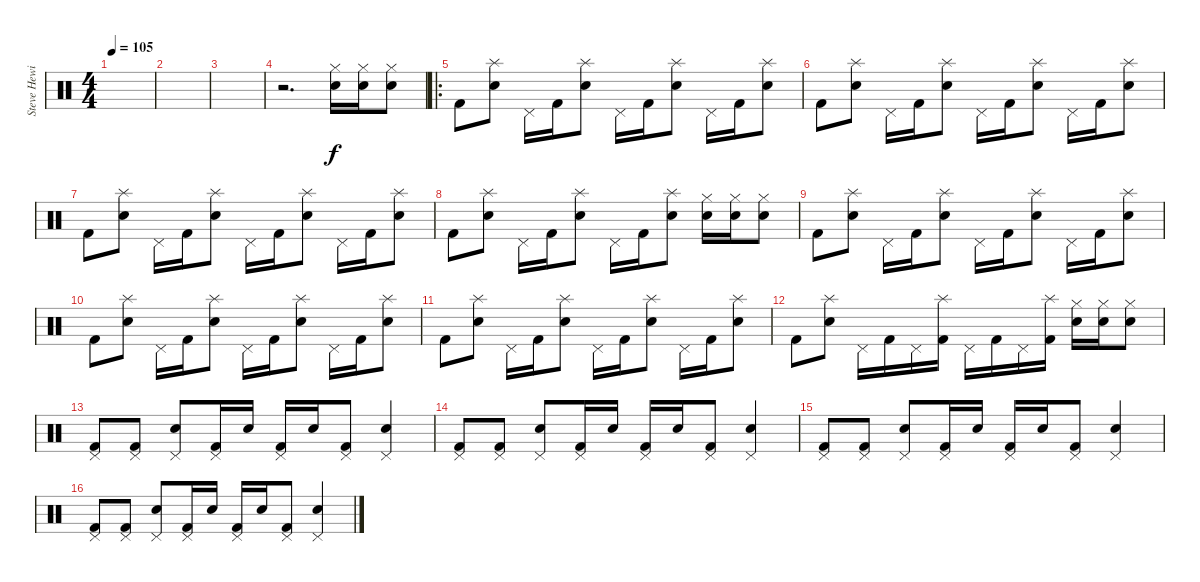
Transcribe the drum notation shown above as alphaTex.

\track ("Steve Hewitt" "Steve Hewi") {instrument percussion}
\staff {score}
\articulation defaults
\ts (4 4)
\tempo 105
\clef neutral
\ks c
|
|
|
r.2{d} ("Hi-Hat (closed)" "Electric Snare (hit)").16 ("Hi-Hat (closed)" "Electric Snare (hit)").16 ("Hi-Hat (closed)" "Electric Snare (hit)").8 |
\ro "Kick (hit) 2".8
("Splash (hit)" "Electric Snare (hit)").8 "Pedal Hi-Hat (hit)".16 "Kick (hit) 2".16 ("Splash (hit)" "Electric Snare (hit)").8 "Pedal Hi-Hat (hit)".16 "Kick (hit) 2".16 ("Splash (hit)" "Electric Snare (hit)").8 "Pedal Hi-Hat (hit)".16 "Kick (hit) 2".16 ("Splash (hit)" "Electric Snare (hit)").8 |
"Kick (hit) 2".8 ("Splash (hit)" "Electric Snare (hit)").8 "Pedal Hi-Hat (hit)".16 "Kick (hit) 2".16 ("Splash (hit)" "Electric Snare (hit)").8 "Pedal Hi-Hat (hit)".16 "Kick (hit) 2".16 ("Splash (hit)" "Electric Snare (hit)").8 "Pedal Hi-Hat (hit)".16 "Kick (hit) 2".16 ("Splash (hit)" "Electric Snare (hit)").8 |
"Kick (hit) 2".8 ("Splash (hit)" "Electric Snare (hit)").8 "Pedal Hi-Hat (hit)".16 "Kick (hit) 2".16 ("Splash (hit)" "Electric Snare (hit)").8 "Pedal Hi-Hat (hit)".16 "Kick (hit) 2".16 ("Splash (hit)" "Electric Snare (hit)").8 "Pedal Hi-Hat (hit)".16 "Kick (hit) 2".16 ("Splash (hit)" "Electric Snare (hit)").8 |
"Kick (hit) 2".8 ("Splash (hit)" "Electric Snare (hit)").8 "Pedal Hi-Hat (hit)".16 "Kick (hit) 2".16 ("Splash (hit)" "Electric Snare (hit)").8 "Pedal Hi-Hat (hit)".16 "Kick (hit) 2".16 ("Splash (hit)" "Electric Snare (hit)").8 ("Hi-Hat (closed)" "Electric Snare (hit)").16 ("Hi-Hat (closed)" "Electric Snare (hit)").16 ("Hi-Hat (closed)" "Electric Snare (hit)").8 |
"Kick (hit) 2".8 ("Splash (hit)" "Electric Snare (hit)").8 "Pedal Hi-Hat (hit)".16 "Kick (hit) 2".16 ("Splash (hit)" "Electric Snare (hit)").8 "Pedal Hi-Hat (hit)".16 "Kick (hit) 2".16 ("Splash (hit)" "Electric Snare (hit)").8 "Pedal Hi-Hat (hit)".16 "Kick (hit) 2".16 ("Splash (hit)" "Electric Snare (hit)").8 |
"Kick (hit) 2".8 ("Splash (hit)" "Electric Snare (hit)").8 "Pedal Hi-Hat (hit)".16 "Kick (hit) 2".16 ("Splash (hit)" "Electric Snare (hit)").8 "Pedal Hi-Hat (hit)".16 "Kick (hit) 2".16 ("Splash (hit)" "Electric Snare (hit)").8 "Pedal Hi-Hat (hit)".16 "Kick (hit) 2".16 ("Splash (hit)" "Electric Snare (hit)").8 |
"Kick (hit) 2".8 ("Splash (hit)" "Electric Snare (hit)").8 "Pedal Hi-Hat (hit)".16 "Kick (hit) 2".16 ("Splash (hit)" "Electric Snare (hit)").8 "Pedal Hi-Hat (hit)".16 "Kick (hit) 2".16 ("Splash (hit)" "Electric Snare (hit)").8 "Pedal Hi-Hat (hit)".16 "Kick (hit) 2".16 ("Splash (hit)" "Electric Snare (hit)").8 |
"Kick (hit) 2".8 ("Splash (hit)" "Electric Snare (hit)").8 "Pedal Hi-Hat (hit)".16 "Kick (hit) 2".16 "Pedal Hi-Hat (hit)".16 ("Splash (hit)" "Kick (hit) 2").16 "Pedal Hi-Hat (hit)".16 "Kick (hit) 2".16 "Pedal Hi-Hat (hit)".16 ("Splash (hit)" "Kick (hit) 2").16 ("Hi-Hat (closed)" "Electric Snare (hit)").16 ("Hi-Hat (closed)" "Electric Snare (hit)").16 ("Hi-Hat (closed)" "Electric Snare (hit)").8 |
("Pedal Hi-Hat (hit)" "Kick (hit) 2").8 ("Pedal Hi-Hat (hit)" "Kick (hit) 2").8 ("Pedal Hi-Hat (hit)" "Electric Snare (hit)").8 ("Pedal Hi-Hat (hit)" "Kick (hit) 2").16 "Electric Snare (hit)".16 ("Pedal Hi-Hat (hit)" "Kick (hit) 2").16 "Electric Snare (hit)".16 ("Pedal Hi-Hat (hit)" "Kick (hit) 2").8 ("Pedal Hi-Hat (hit)" "Electric Snare (hit)").4 |
("Pedal Hi-Hat (hit)" "Kick (hit) 2").8 ("Pedal Hi-Hat (hit)" "Kick (hit) 2").8 ("Pedal Hi-Hat (hit)" "Electric Snare (hit)").8 ("Pedal Hi-Hat (hit)" "Kick (hit) 2").16 "Electric Snare (hit)".16 ("Pedal Hi-Hat (hit)" "Kick (hit) 2").16 "Electric Snare (hit)".16 ("Pedal Hi-Hat (hit)" "Kick (hit) 2").8 ("Pedal Hi-Hat (hit)" "Electric Snare (hit)").4 |
("Pedal Hi-Hat (hit)" "Kick (hit) 2").8 ("Pedal Hi-Hat (hit)" "Kick (hit) 2").8 ("Pedal Hi-Hat (hit)" "Electric Snare (hit)").8 ("Pedal Hi-Hat (hit)" "Kick (hit) 2").16 "Electric Snare (hit)".16 ("Pedal Hi-Hat (hit)" "Kick (hit) 2").16 "Electric Snare (hit)".16 ("Pedal Hi-Hat (hit)" "Kick (hit) 2").8 ("Pedal Hi-Hat (hit)" "Electric Snare (hit)").4 |
("Pedal Hi-Hat (hit)" "Kick (hit) 2").8 ("Pedal Hi-Hat (hit)" "Kick (hit) 2").8 ("Pedal Hi-Hat (hit)" "Electric Snare (hit)").8 ("Pedal Hi-Hat (hit)" "Kick (hit) 2").16 "Electric Snare (hit)".16 ("Pedal Hi-Hat (hit)" "Kick (hit) 2").16 "Electric Snare (hit)".16 ("Pedal Hi-Hat (hit)" "Kick (hit) 2").8 ("Pedal Hi-Hat (hit)" "Electric Snare (hit)").4
